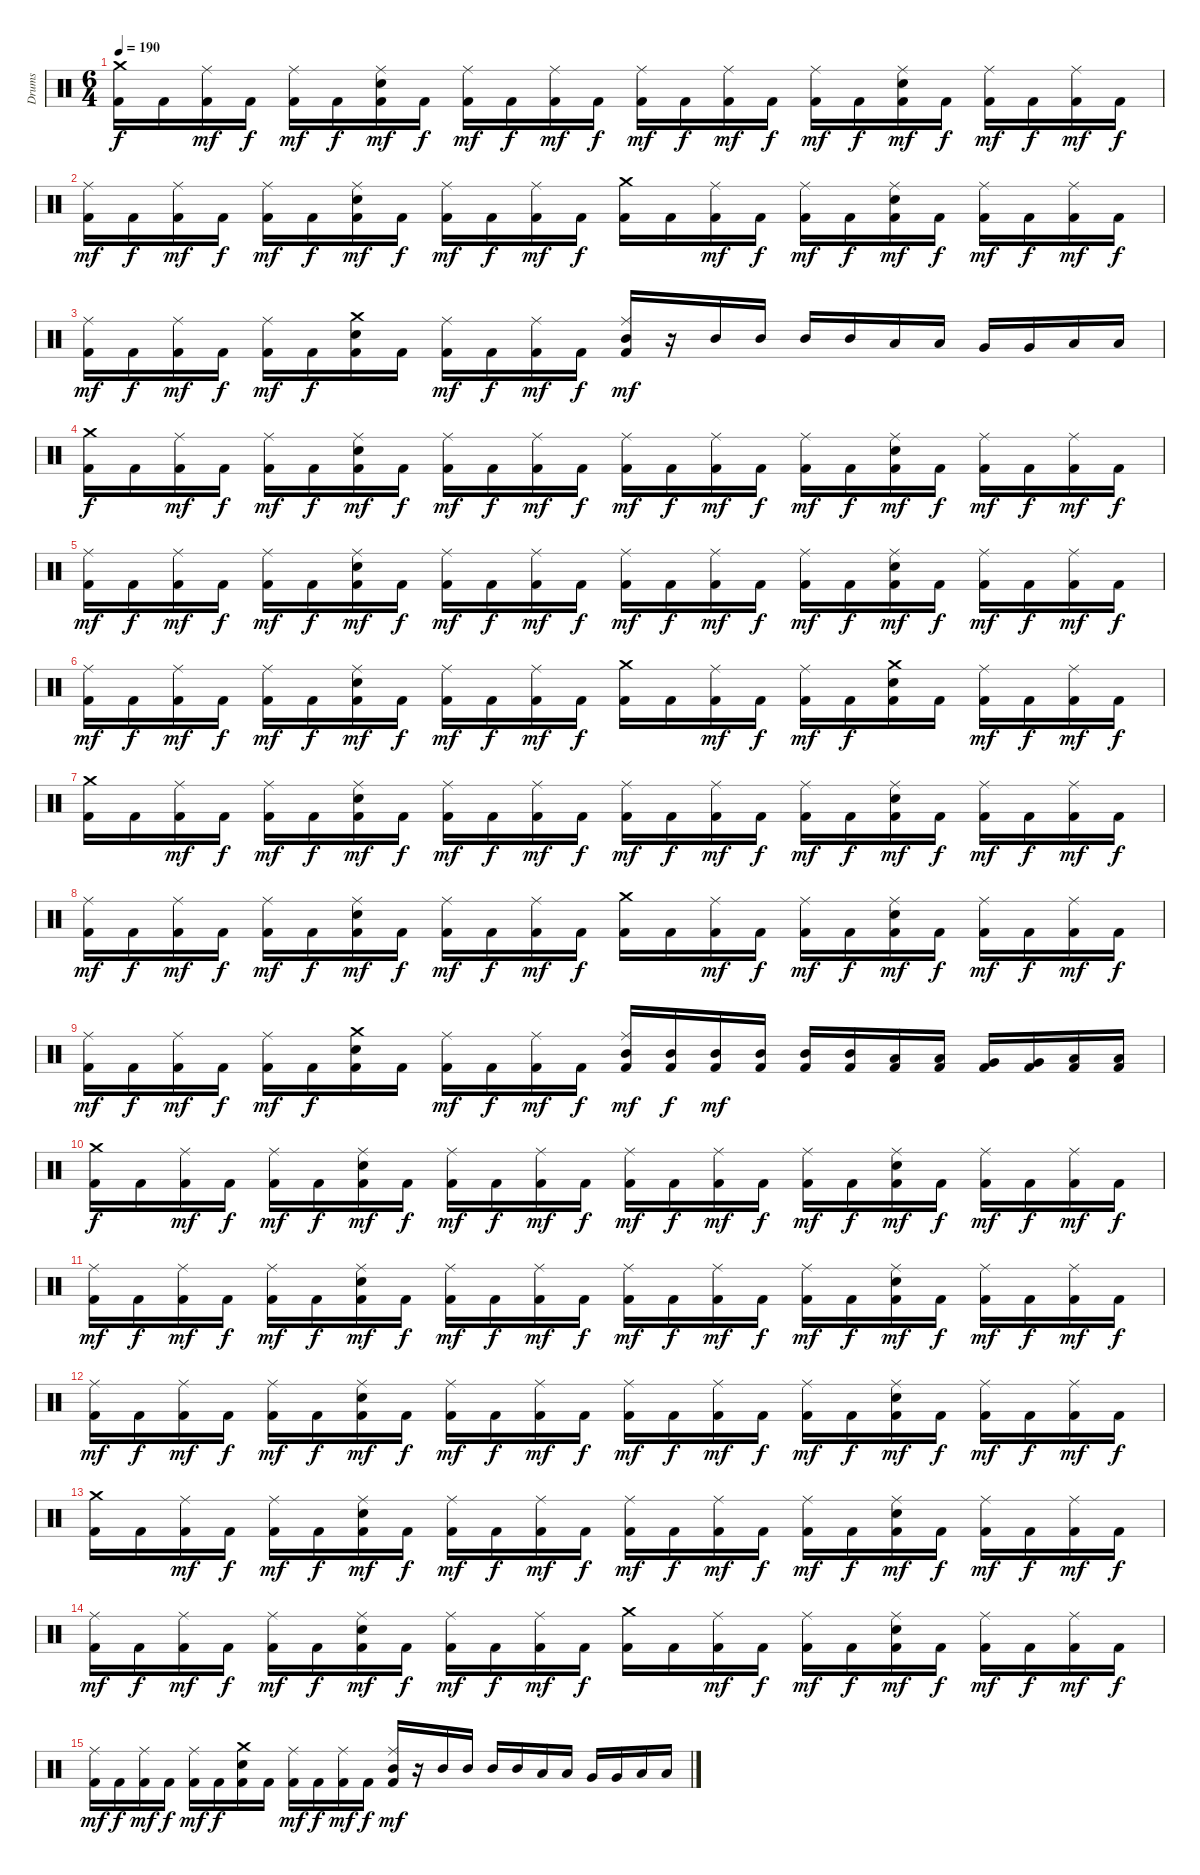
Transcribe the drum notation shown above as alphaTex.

\track ("Drums" "Drums") {instrument percussion}
\staff {score}
\articulation defaults
\ts (6 4)
\tempo 190
\clef neutral
\ks c
("Crash medium (hit)" "Kick (hit) 2").16{dy f} "Kick (hit) 2".16 ("Ride (middle)" "Kick (hit) 2").16{dy mf} "Kick (hit) 2".16{dy f} ("Ride (middle)" "Kick (hit) 2").16{dy mf} "Kick (hit) 2".16{dy f} ("Ride (middle)" "Snare (hit) 2" "Kick (hit) 2").16{dy mf} "Kick (hit) 2".16{dy f} ("Ride (middle)" "Kick (hit) 2").16{dy mf} "Kick (hit) 2".16{dy f} ("Ride (middle)" "Kick (hit) 2").16{dy mf} "Kick (hit) 2".16{dy f} ("Ride (middle)" "Kick (hit) 2").16{dy mf} "Kick (hit) 2".16{dy f} ("Ride (middle)" "Kick (hit) 2").16{dy mf} "Kick (hit) 2".16{dy f} ("Ride (middle)" "Kick (hit) 2").16{dy mf} "Kick (hit) 2".16{dy f} ("Ride (middle)" "Snare (hit) 2" "Kick (hit) 2").16{dy mf} "Kick (hit) 2".16{dy f} ("Ride (middle)" "Kick (hit) 2").16{dy mf} "Kick (hit) 2".16{dy f} ("Ride (middle)" "Kick (hit) 2").16{dy mf} "Kick (hit) 2".16{dy f} |
("Ride (middle)" "Kick (hit) 2").16{dy mf} "Kick (hit) 2".16{dy f} ("Ride (middle)" "Kick (hit) 2").16{dy mf} "Kick (hit) 2".16{dy f} ("Ride (middle)" "Kick (hit) 2").16{dy mf} "Kick (hit) 2".16{dy f} ("Ride (middle)" "Snare (hit) 2" "Kick (hit) 2").16{dy mf} "Kick (hit) 2".16{dy f} ("Ride (middle)" "Kick (hit) 2").16{dy mf} "Kick (hit) 2".16{dy f} ("Ride (middle)" "Kick (hit) 2").16{dy mf} "Kick (hit) 2".16{dy f} ("Crash medium (hit)" "Kick (hit) 2").16 "Kick (hit) 2".16 ("Ride (middle)" "Kick (hit) 2").16{dy mf} "Kick (hit) 2".16{dy f} ("Ride (middle)" "Kick (hit) 2").16{dy mf} "Kick (hit) 2".16{dy f} ("Ride (middle)" "Snare (hit) 2" "Kick (hit) 2").16{dy mf} "Kick (hit) 2".16{dy f} ("Ride (middle)" "Kick (hit) 2").16{dy mf} "Kick (hit) 2".16{dy f} ("Ride (middle)" "Kick (hit) 2").16{dy mf} "Kick (hit) 2".16{dy f} |
("Ride (middle)" "Kick (hit) 2").16{dy mf} "Kick (hit) 2".16{dy f} ("Ride (middle)" "Kick (hit) 2").16{dy mf} "Kick (hit) 2".16{dy f} ("Ride (middle)" "Kick (hit) 2").16{dy mf} "Kick (hit) 2".16{dy f} ("Crash medium (hit)" "Snare (hit) 2" "Kick (hit) 2").16 "Kick (hit) 2".16 ("Ride (middle)" "Kick (hit) 2").16{dy mf} "Kick (hit) 2".16{dy f} ("Ride (middle)" "Kick (hit) 2").16{dy mf} "Kick (hit) 2".16{dy f} ("Ride (middle)" "Mid Tom (hit)" "Kick (hit) 2").16{dy mf} r.16 "Mid Tom (hit)".16 "Mid Tom (hit)".16 "Mid Tom (hit)".16 "Mid Tom (hit)".16 "Low Tom (hit)".16 "Low Tom (hit)".16 "Very Low Tom (hit)".16 "Very Low Tom (hit)".16 "Low Floor Tom (hit)".16 "Low Floor Tom (hit)".16 |
("Crash medium (hit)" "Kick (hit) 2").16{dy f} "Kick (hit) 2".16 ("Ride (middle)" "Kick (hit) 2").16{dy mf} "Kick (hit) 2".16{dy f} ("Ride (middle)" "Kick (hit) 2").16{dy mf} "Kick (hit) 2".16{dy f} ("Ride (middle)" "Snare (hit) 2" "Kick (hit) 2").16{dy mf} "Kick (hit) 2".16{dy f} ("Ride (middle)" "Kick (hit) 2").16{dy mf} "Kick (hit) 2".16{dy f} ("Ride (middle)" "Kick (hit) 2").16{dy mf} "Kick (hit) 2".16{dy f} ("Ride (middle)" "Kick (hit) 2").16{dy mf} "Kick (hit) 2".16{dy f} ("Ride (middle)" "Kick (hit) 2").16{dy mf} "Kick (hit) 2".16{dy f} ("Ride (middle)" "Kick (hit) 2").16{dy mf} "Kick (hit) 2".16{dy f} ("Ride (middle)" "Snare (hit) 2" "Kick (hit) 2").16{dy mf} "Kick (hit) 2".16{dy f} ("Ride (middle)" "Kick (hit) 2").16{dy mf} "Kick (hit) 2".16{dy f} ("Ride (middle)" "Kick (hit) 2").16{dy mf} "Kick (hit) 2".16{dy f} |
("Ride (middle)" "Kick (hit) 2").16{dy mf} "Kick (hit) 2".16{dy f} ("Ride (middle)" "Kick (hit) 2").16{dy mf} "Kick (hit) 2".16{dy f} ("Ride (middle)" "Kick (hit) 2").16{dy mf} "Kick (hit) 2".16{dy f} ("Ride (middle)" "Snare (hit) 2" "Kick (hit) 2").16{dy mf} "Kick (hit) 2".16{dy f} ("Ride (middle)" "Kick (hit) 2").16{dy mf} "Kick (hit) 2".16{dy f} ("Ride (middle)" "Kick (hit) 2").16{dy mf} "Kick (hit) 2".16{dy f} ("Ride (middle)" "Kick (hit) 2").16{dy mf} "Kick (hit) 2".16{dy f} ("Ride (middle)" "Kick (hit) 2").16{dy mf} "Kick (hit) 2".16{dy f} ("Ride (middle)" "Kick (hit) 2").16{dy mf} "Kick (hit) 2".16{dy f} ("Ride (middle)" "Snare (hit) 2" "Kick (hit) 2").16{dy mf} "Kick (hit) 2".16{dy f} ("Ride (middle)" "Kick (hit) 2").16{dy mf} "Kick (hit) 2".16{dy f} ("Ride (middle)" "Kick (hit) 2").16{dy mf} "Kick (hit) 2".16{dy f} |
("Ride (middle)" "Kick (hit) 2").16{dy mf} "Kick (hit) 2".16{dy f} ("Ride (middle)" "Kick (hit) 2").16{dy mf} "Kick (hit) 2".16{dy f} ("Ride (middle)" "Kick (hit) 2").16{dy mf} "Kick (hit) 2".16{dy f} ("Ride (middle)" "Snare (hit) 2" "Kick (hit) 2").16{dy mf} "Kick (hit) 2".16{dy f} ("Ride (middle)" "Kick (hit) 2").16{dy mf} "Kick (hit) 2".16{dy f} ("Ride (middle)" "Kick (hit) 2").16{dy mf} "Kick (hit) 2".16{dy f} ("Crash medium (hit)" "Kick (hit) 2").16 "Kick (hit) 2".16 ("Ride (middle)" "Kick (hit) 2").16{dy mf} "Kick (hit) 2".16{dy f} ("Ride (middle)" "Kick (hit) 2").16{dy mf} "Kick (hit) 2".16{dy f} ("Crash medium (hit)" "Snare (hit) 2" "Kick (hit) 2").16 "Kick (hit) 2".16 ("Ride (middle)" "Kick (hit) 2").16{dy mf} "Kick (hit) 2".16{dy f} ("Ride (middle)" "Kick (hit) 2").16{dy mf} "Kick (hit) 2".16{dy f} |
("Crash medium (hit)" "Kick (hit) 2").16 "Kick (hit) 2".16 ("Ride (middle)" "Kick (hit) 2").16{dy mf} "Kick (hit) 2".16{dy f} ("Ride (middle)" "Kick (hit) 2").16{dy mf} "Kick (hit) 2".16{dy f} ("Ride (middle)" "Snare (hit) 2" "Kick (hit) 2").16{dy mf} "Kick (hit) 2".16{dy f} ("Ride (middle)" "Kick (hit) 2").16{dy mf} "Kick (hit) 2".16{dy f} ("Ride (middle)" "Kick (hit) 2").16{dy mf} "Kick (hit) 2".16{dy f} ("Ride (middle)" "Kick (hit) 2").16{dy mf} "Kick (hit) 2".16{dy f} ("Ride (middle)" "Kick (hit) 2").16{dy mf} "Kick (hit) 2".16{dy f} ("Ride (middle)" "Kick (hit) 2").16{dy mf} "Kick (hit) 2".16{dy f} ("Ride (middle)" "Snare (hit) 2" "Kick (hit) 2").16{dy mf} "Kick (hit) 2".16{dy f} ("Ride (middle)" "Kick (hit) 2").16{dy mf} "Kick (hit) 2".16{dy f} ("Ride (middle)" "Kick (hit) 2").16{dy mf} "Kick (hit) 2".16{dy f} |
("Ride (middle)" "Kick (hit) 2").16{dy mf} "Kick (hit) 2".16{dy f} ("Ride (middle)" "Kick (hit) 2").16{dy mf} "Kick (hit) 2".16{dy f} ("Ride (middle)" "Kick (hit) 2").16{dy mf} "Kick (hit) 2".16{dy f} ("Ride (middle)" "Snare (hit) 2" "Kick (hit) 2").16{dy mf} "Kick (hit) 2".16{dy f} ("Ride (middle)" "Kick (hit) 2").16{dy mf} "Kick (hit) 2".16{dy f} ("Ride (middle)" "Kick (hit) 2").16{dy mf} "Kick (hit) 2".16{dy f} ("Crash medium (hit)" "Kick (hit) 2").16 "Kick (hit) 2".16 ("Ride (middle)" "Kick (hit) 2").16{dy mf} "Kick (hit) 2".16{dy f} ("Ride (middle)" "Kick (hit) 2").16{dy mf} "Kick (hit) 2".16{dy f} ("Ride (middle)" "Snare (hit) 2" "Kick (hit) 2").16{dy mf} "Kick (hit) 2".16{dy f} ("Ride (middle)" "Kick (hit) 2").16{dy mf} "Kick (hit) 2".16{dy f} ("Ride (middle)" "Kick (hit) 2").16{dy mf} "Kick (hit) 2".16{dy f} |
("Ride (middle)" "Kick (hit) 2").16{dy mf} "Kick (hit) 2".16{dy f} ("Ride (middle)" "Kick (hit) 2").16{dy mf} "Kick (hit) 2".16{dy f} ("Ride (middle)" "Kick (hit) 2").16{dy mf} "Kick (hit) 2".16{dy f} ("Crash medium (hit)" "Snare (hit) 2" "Kick (hit) 2").16 "Kick (hit) 2".16 ("Ride (middle)" "Kick (hit) 2").16{dy mf} "Kick (hit) 2".16{dy f} ("Ride (middle)" "Kick (hit) 2").16{dy mf} "Kick (hit) 2".16{dy f} ("Ride (middle)" "Mid Tom (hit)" "Kick (hit) 2").16{dy mf} ("Mid Tom (hit)" "Kick (hit) 2").16{dy f} ("Mid Tom (hit)" "Kick (hit) 2").16{dy mf} ("Mid Tom (hit)" "Kick (hit) 2").16 ("Mid Tom (hit)" "Kick (hit) 2").16 ("Mid Tom (hit)" "Kick (hit) 2").16 ("Low Tom (hit)" "Kick (hit) 2").16 ("Low Tom (hit)" "Kick (hit) 2").16 ("Very Low Tom (hit)" "Kick (hit) 2").16 ("Very Low Tom (hit)" "Kick (hit) 2").16 ("Low Floor Tom (hit)" "Kick (hit) 2").16 ("Low Floor Tom (hit)" "Kick (hit) 2").16 |
("Crash medium (hit)" "Kick (hit) 2").16{dy f volume 0} "Kick (hit) 2".16 ("Ride (middle)" "Kick (hit) 2").16{dy mf} "Kick (hit) 2".16{dy f} ("Ride (middle)" "Kick (hit) 2").16{dy mf} "Kick (hit) 2".16{dy f} ("Ride (middle)" "Snare (hit) 2" "Kick (hit) 2").16{dy mf} "Kick (hit) 2".16{dy f} ("Ride (middle)" "Kick (hit) 2").16{dy mf} "Kick (hit) 2".16{dy f} ("Ride (middle)" "Kick (hit) 2").16{dy mf} "Kick (hit) 2".16{dy f} ("Ride (middle)" "Kick (hit) 2").16{dy mf} "Kick (hit) 2".16{dy f} ("Ride (middle)" "Kick (hit) 2").16{dy mf} "Kick (hit) 2".16{dy f} ("Ride (middle)" "Kick (hit) 2").16{dy mf} "Kick (hit) 2".16{dy f} ("Ride (middle)" "Snare (hit) 2" "Kick (hit) 2").16{dy mf} "Kick (hit) 2".16{dy f} ("Ride (middle)" "Kick (hit) 2").16{dy mf} "Kick (hit) 2".16{dy f} ("Ride (middle)" "Kick (hit) 2").16{dy mf} "Kick (hit) 2".16{dy f} |
("Ride (middle)" "Kick (hit) 2").16{dy mf} "Kick (hit) 2".16{dy f} ("Ride (middle)" "Kick (hit) 2").16{dy mf} "Kick (hit) 2".16{dy f} ("Ride (middle)" "Kick (hit) 2").16{dy mf} "Kick (hit) 2".16{dy f} ("Ride (middle)" "Snare (hit) 2" "Kick (hit) 2").16{dy mf} "Kick (hit) 2".16{dy f} ("Ride (middle)" "Kick (hit) 2").16{dy mf} "Kick (hit) 2".16{dy f} ("Ride (middle)" "Kick (hit) 2").16{dy mf} "Kick (hit) 2".16{dy f} ("Ride (middle)" "Kick (hit) 2").16{dy mf} "Kick (hit) 2".16{dy f} ("Ride (middle)" "Kick (hit) 2").16{dy mf} "Kick (hit) 2".16{dy f} ("Ride (middle)" "Kick (hit) 2").16{dy mf} "Kick (hit) 2".16{dy f} ("Ride (middle)" "Snare (hit) 2" "Kick (hit) 2").16{dy mf} "Kick (hit) 2".16{dy f} ("Ride (middle)" "Kick (hit) 2").16{dy mf} "Kick (hit) 2".16{dy f} ("Ride (middle)" "Kick (hit) 2").16{dy mf} "Kick (hit) 2".16{dy f} |
("Ride (middle)" "Kick (hit) 2").16{dy mf} "Kick (hit) 2".16{dy f} ("Ride (middle)" "Kick (hit) 2").16{dy mf} "Kick (hit) 2".16{dy f} ("Ride (middle)" "Kick (hit) 2").16{dy mf} "Kick (hit) 2".16{dy f} ("Ride (middle)" "Snare (hit) 2" "Kick (hit) 2").16{dy mf} "Kick (hit) 2".16{dy f} ("Ride (middle)" "Kick (hit) 2").16{dy mf} "Kick (hit) 2".16{dy f} ("Ride (middle)" "Kick (hit) 2").16{dy mf} "Kick (hit) 2".16{dy f} ("Ride (middle)" "Kick (hit) 2").16{dy mf} "Kick (hit) 2".16{dy f} ("Ride (middle)" "Kick (hit) 2").16{dy mf} "Kick (hit) 2".16{dy f} ("Ride (middle)" "Kick (hit) 2").16{dy mf} "Kick (hit) 2".16{dy f} ("Ride (middle)" "Snare (hit) 2" "Kick (hit) 2").16{dy mf} "Kick (hit) 2".16{dy f} ("Ride (middle)" "Kick (hit) 2").16{dy mf} "Kick (hit) 2".16{dy f} ("Ride (middle)" "Kick (hit) 2").16{dy mf} "Kick (hit) 2".16{dy f} |
("Crash medium (hit)" "Kick (hit) 2").16 "Kick (hit) 2".16 ("Ride (middle)" "Kick (hit) 2").16{dy mf} "Kick (hit) 2".16{dy f} ("Ride (middle)" "Kick (hit) 2").16{dy mf} "Kick (hit) 2".16{dy f} ("Ride (middle)" "Snare (hit) 2" "Kick (hit) 2").16{dy mf} "Kick (hit) 2".16{dy f} ("Ride (middle)" "Kick (hit) 2").16{dy mf} "Kick (hit) 2".16{dy f} ("Ride (middle)" "Kick (hit) 2").16{dy mf} "Kick (hit) 2".16{dy f} ("Ride (middle)" "Kick (hit) 2").16{dy mf} "Kick (hit) 2".16{dy f} ("Ride (middle)" "Kick (hit) 2").16{dy mf} "Kick (hit) 2".16{dy f} ("Ride (middle)" "Kick (hit) 2").16{dy mf} "Kick (hit) 2".16{dy f} ("Ride (middle)" "Snare (hit) 2" "Kick (hit) 2").16{dy mf} "Kick (hit) 2".16{dy f} ("Ride (middle)" "Kick (hit) 2").16{dy mf} "Kick (hit) 2".16{dy f} ("Ride (middle)" "Kick (hit) 2").16{dy mf} "Kick (hit) 2".16{dy f} |
("Ride (middle)" "Kick (hit) 2").16{dy mf} "Kick (hit) 2".16{dy f} ("Ride (middle)" "Kick (hit) 2").16{dy mf} "Kick (hit) 2".16{dy f} ("Ride (middle)" "Kick (hit) 2").16{dy mf} "Kick (hit) 2".16{dy f} ("Ride (middle)" "Snare (hit) 2" "Kick (hit) 2").16{dy mf} "Kick (hit) 2".16{dy f} ("Ride (middle)" "Kick (hit) 2").16{dy mf} "Kick (hit) 2".16{dy f} ("Ride (middle)" "Kick (hit) 2").16{dy mf} "Kick (hit) 2".16{dy f} ("Crash medium (hit)" "Kick (hit) 2").16 "Kick (hit) 2".16 ("Ride (middle)" "Kick (hit) 2").16{dy mf} "Kick (hit) 2".16{dy f} ("Ride (middle)" "Kick (hit) 2").16{dy mf} "Kick (hit) 2".16{dy f} ("Ride (middle)" "Snare (hit) 2" "Kick (hit) 2").16{dy mf} "Kick (hit) 2".16{dy f} ("Ride (middle)" "Kick (hit) 2").16{dy mf} "Kick (hit) 2".16{dy f} ("Ride (middle)" "Kick (hit) 2").16{dy mf} "Kick (hit) 2".16{dy f} |
("Ride (middle)" "Kick (hit) 2").16{dy mf} "Kick (hit) 2".16{dy f} ("Ride (middle)" "Kick (hit) 2").16{dy mf} "Kick (hit) 2".16{dy f} ("Ride (middle)" "Kick (hit) 2").16{dy mf} "Kick (hit) 2".16{dy f} ("Crash medium (hit)" "Snare (hit) 2" "Kick (hit) 2").16 "Kick (hit) 2".16 ("Ride (middle)" "Kick (hit) 2").16{dy mf} "Kick (hit) 2".16{dy f} ("Ride (middle)" "Kick (hit) 2").16{dy mf} "Kick (hit) 2".16{dy f} ("Ride (middle)" "Mid Tom (hit)" "Kick (hit) 2").16{dy mf} r.16 "Mid Tom (hit)".16 "Mid Tom (hit)".16 "Mid Tom (hit)".16 "Mid Tom (hit)".16 "Low Tom (hit)".16 "Low Tom (hit)".16 "Very Low Tom (hit)".16 "Very Low Tom (hit)".16 "Low Floor Tom (hit)".16 "Low Floor Tom (hit)".16
